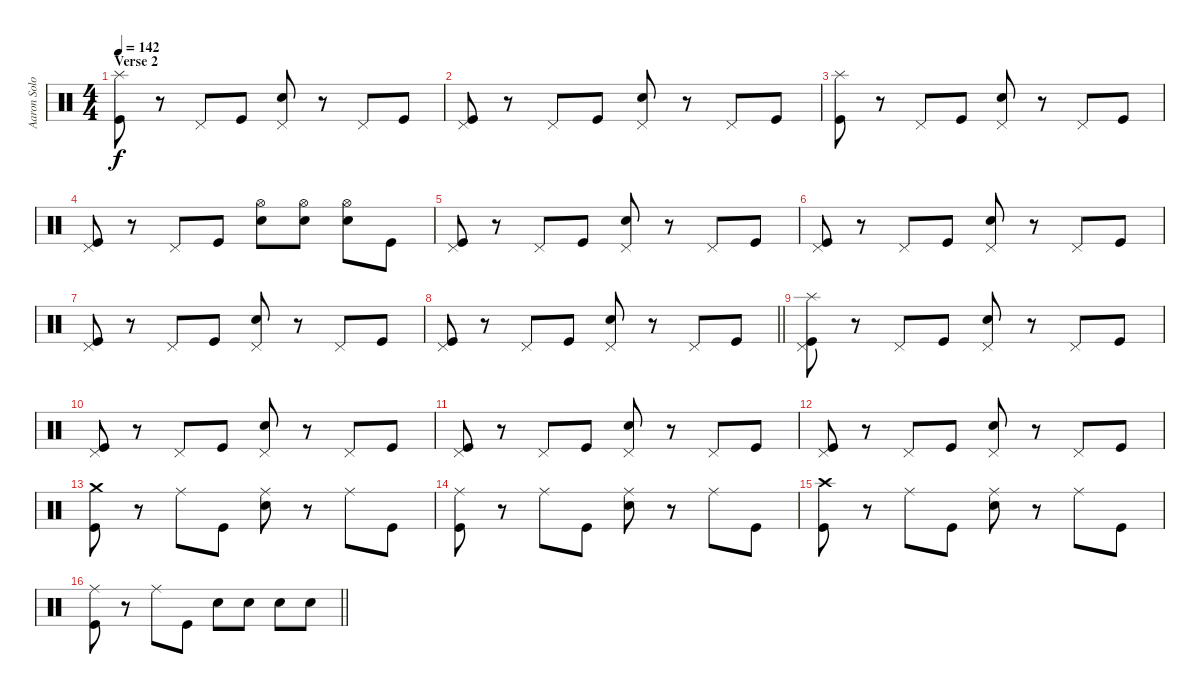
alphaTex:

\track ("Aaron Solowoniuk" "Aaron Solo") {instrument percussion}
\staff {score}
\articulation defaults
\ts (4 4)
\section ("" "Verse 2")
\tempo 142
\clef neutral
\ks c
("Splash (hit)" "Kick (hit)").8{dy f} r.8 "Pedal Hi-Hat (hit)".8 "Kick (hit)".8 ("Pedal Hi-Hat (hit)" "Electric Snare (hit)").8 r.8 "Pedal Hi-Hat (hit)".8 "Kick (hit)".8 |
("Pedal Hi-Hat (hit)" "Kick (hit)").8 r.8 "Pedal Hi-Hat (hit)".8 "Kick (hit)".8 ("Pedal Hi-Hat (hit)" "Electric Snare (hit)").8 r.8 "Pedal Hi-Hat (hit)".8 "Kick (hit)".8 |
("Splash (hit)" "Kick (hit)").8 r.8 "Pedal Hi-Hat (hit)".8 "Kick (hit)".8 ("Pedal Hi-Hat (hit)" "Electric Snare (hit)").8 r.8 "Pedal Hi-Hat (hit)".8 "Kick (hit)".8 |
("Pedal Hi-Hat (hit)" "Kick (hit)").8 r.8 "Pedal Hi-Hat (hit)".8 "Kick (hit)".8 ("Hi-Hat (open)" "Electric Snare (hit)").8 ("Hi-Hat (open)" "Electric Snare (hit)").8 ("Hi-Hat (open)" "Electric Snare (hit)").8 "Kick (hit)".8 |
("Pedal Hi-Hat (hit)" "Kick (hit)").8 r.8 "Pedal Hi-Hat (hit)".8 "Kick (hit)".8 ("Pedal Hi-Hat (hit)" "Electric Snare (hit)").8 r.8 "Pedal Hi-Hat (hit)".8 "Kick (hit)".8 |
("Pedal Hi-Hat (hit)" "Kick (hit)").8 r.8 "Pedal Hi-Hat (hit)".8 "Kick (hit)".8 ("Pedal Hi-Hat (hit)" "Electric Snare (hit)").8 r.8 "Pedal Hi-Hat (hit)".8 "Kick (hit)".8 |
("Pedal Hi-Hat (hit)" "Kick (hit)").8 r.8 "Pedal Hi-Hat (hit)".8 "Kick (hit)".8 ("Pedal Hi-Hat (hit)" "Electric Snare (hit)").8 r.8 "Pedal Hi-Hat (hit)".8 "Kick (hit)".8 |
\barLineRight lightlight
("Pedal Hi-Hat (hit)" "Kick (hit)").8 r.8 "Pedal Hi-Hat (hit)".8 "Kick (hit)".8 ("Pedal Hi-Hat (hit)" "Electric Snare (hit)").8 r.8 "Pedal Hi-Hat (hit)".8 "Kick (hit)".8 |
("Splash (hit)" "Pedal Hi-Hat (hit)" "Kick (hit)").8 r.8 "Pedal Hi-Hat (hit)".8 "Kick (hit)".8 ("Pedal Hi-Hat (hit)" "Electric Snare (hit)").8 r.8 "Pedal Hi-Hat (hit)".8 "Kick (hit)".8 |
("Pedal Hi-Hat (hit)" "Kick (hit)").8 r.8 "Pedal Hi-Hat (hit)".8 "Kick (hit)".8 ("Pedal Hi-Hat (hit)" "Electric Snare (hit)").8 r.8 "Pedal Hi-Hat (hit)".8 "Kick (hit)".8 |
("Pedal Hi-Hat (hit)" "Kick (hit)").8 r.8 "Pedal Hi-Hat (hit)".8 "Kick (hit)".8 ("Pedal Hi-Hat (hit)" "Electric Snare (hit)").8 r.8 "Pedal Hi-Hat (hit)".8 "Kick (hit)".8 |
("Pedal Hi-Hat (hit)" "Kick (hit)").8 r.8 "Pedal Hi-Hat (hit)".8 "Kick (hit)".8 ("Pedal Hi-Hat (hit)" "Electric Snare (hit)").8 r.8 "Pedal Hi-Hat (hit)".8 "Kick (hit)".8 |
("Crash medium (hit)" "Kick (hit)").8 r.8 "Ride (middle)".8 "Kick (hit)".8 ("Ride (middle)" "Electric Snare (hit)").8 r.8 "Ride (middle)".8 "Kick (hit)".8 |
("Ride (middle)" "Kick (hit)").8 r.8 "Ride (middle)".8 "Kick (hit)".8 ("Ride (middle)" "Electric Snare (hit)").8 r.8 "Ride (middle)".8 "Kick (hit)".8 |
("Crash high (hit)" "Kick (hit)").8 r.8 "Ride (middle)".8 "Kick (hit)".8 ("Ride (middle)" "Electric Snare (hit)").8 r.8 "Ride (middle)".8 "Kick (hit)".8 |
\barLineRight lightlight
("Ride (middle)" "Kick (hit)").8 r.8 "Ride (middle)".8 "Kick (hit)".8 "Electric Snare (hit)".8 "Electric Snare (hit)".8 "Electric Snare (hit)".8 "Electric Snare (hit)".8
